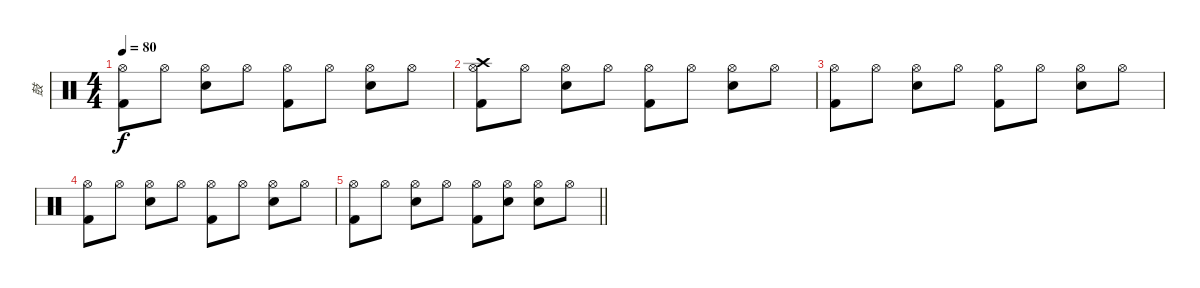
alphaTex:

\track ("鼓" "鼓") {instrument percussion}
\staff {score}
\articulation defaults
\ts (4 4)
\tempo 80
\clef neutral
\ks c
("Hi-Hat (open)" "Kick (hit) 2").8{dy f} "Hi-Hat (open)".8 ("Hi-Hat (open)" "Snare (hit) 2").8 "Hi-Hat (open)".8 ("Hi-Hat (open)" "Kick (hit) 2").8 "Hi-Hat (open)".8 ("Hi-Hat (open)" "Snare (hit) 2").8 "Hi-Hat (open)".8 |
("Hi-Hat (open)" "Crash high (hit)" "Kick (hit) 2").8 "Hi-Hat (open)".8 ("Hi-Hat (open)" "Snare (hit) 2").8 "Hi-Hat (open)".8 ("Hi-Hat (open)" "Kick (hit) 2").8 "Hi-Hat (open)".8 ("Hi-Hat (open)" "Snare (hit) 2").8 "Hi-Hat (open)".8 |
("Hi-Hat (open)" "Kick (hit) 2").8 "Hi-Hat (open)".8 ("Hi-Hat (open)" "Snare (hit) 2").8 "Hi-Hat (open)".8 ("Hi-Hat (open)" "Kick (hit) 2").8 "Hi-Hat (open)".8 ("Hi-Hat (open)" "Snare (hit) 2").8 "Hi-Hat (open)".8 |
("Hi-Hat (open)" "Kick (hit) 2").8 "Hi-Hat (open)".8 ("Hi-Hat (open)" "Snare (hit) 2").8 "Hi-Hat (open)".8 ("Hi-Hat (open)" "Kick (hit) 2").8 "Hi-Hat (open)".8 ("Hi-Hat (open)" "Snare (hit) 2").8 "Hi-Hat (open)".8 |
\barLineRight lightlight
("Hi-Hat (open)" "Kick (hit) 2").8 "Hi-Hat (open)".8 ("Hi-Hat (open)" "Snare (hit) 2").8 "Hi-Hat (open)".8 ("Hi-Hat (open)" "Kick (hit) 2").8 ("Hi-Hat (open)" "Snare (hit) 2").8 ("Hi-Hat (open)" "Snare (hit) 2").8 "Hi-Hat (open)".8
